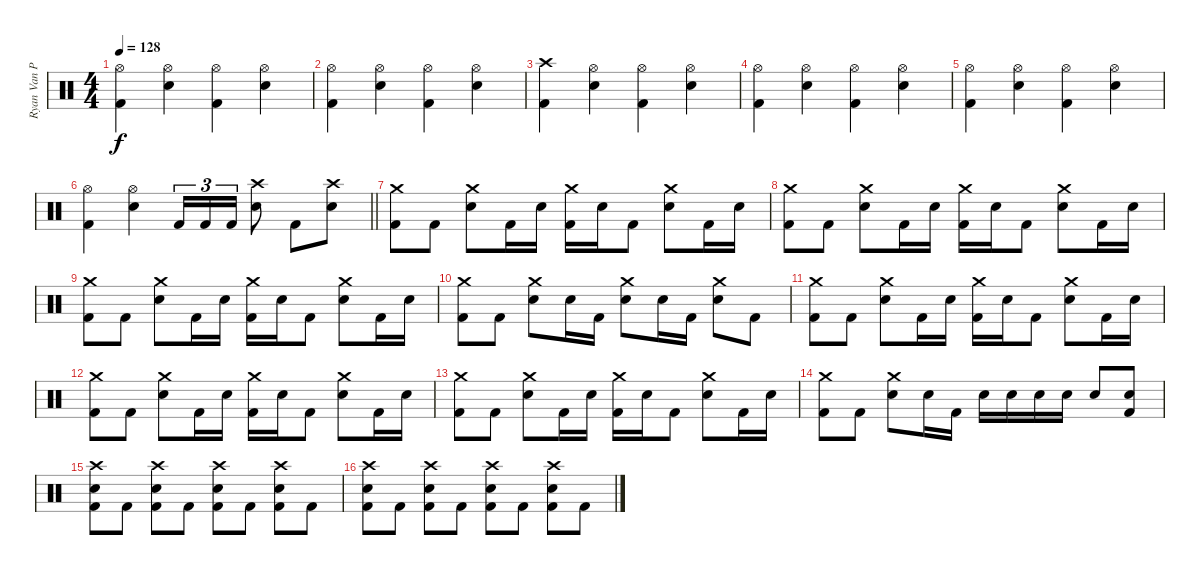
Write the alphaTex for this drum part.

\track ("Ryan Van Poederooyen" "Ryan Van P") {instrument percussion}
\staff {score}
\articulation defaults
\ts (4 4)
\tempo 128
\clef neutral
\ks c
("Hi-Hat (open)" "Kick (hit) 2").4{dy f} ("Hi-Hat (open)" "Electric Snare (hit)").4 ("Hi-Hat (open)" "Kick (hit) 2").4 ("Hi-Hat (open)" "Electric Snare (hit)").4 |
("Hi-Hat (open)" "Kick (hit) 2").4 ("Hi-Hat (open)" "Electric Snare (hit)").4 ("Hi-Hat (open)" "Kick (hit) 2").4 ("Hi-Hat (open)" "Electric Snare (hit)").4 |
("Crash high (hit)" "Kick (hit) 2").4 ("Hi-Hat (open)" "Electric Snare (hit)").4 ("Hi-Hat (open)" "Kick (hit) 2").4 ("Hi-Hat (open)" "Electric Snare (hit)").4 |
("Hi-Hat (open)" "Kick (hit) 2").4 ("Hi-Hat (open)" "Electric Snare (hit)").4 ("Hi-Hat (open)" "Kick (hit) 2").4 ("Hi-Hat (open)" "Electric Snare (hit)").4 |
("Hi-Hat (open)" "Kick (hit) 2").4 ("Hi-Hat (open)" "Electric Snare (hit)").4 ("Hi-Hat (open)" "Kick (hit) 2").4 ("Hi-Hat (open)" "Electric Snare (hit)").4 |
\barLineRight lightlight
("Hi-Hat (open)" "Kick (hit) 2").4 ("Hi-Hat (open)" "Electric Snare (hit)").4 "Kick (hit) 2".16{tu (3 2)} "Kick (hit) 2".16{tu (3 2)} "Kick (hit) 2".16{tu (3 2)} ("Crash high (hit)" "Electric Snare (hit)").8 "Kick (hit) 2".8 ("Crash high (hit)" "Electric Snare (hit)").8 |
("Crash medium (hit)" "Kick (hit) 2").8 "Kick (hit) 2".8 ("Crash medium (hit)" "Electric Snare (hit)").8 "Kick (hit) 2".16 "Electric Snare (hit)".16 ("Crash medium (hit)" "Kick (hit) 2").16 "Electric Snare (hit)".16 "Kick (hit) 2".8 ("Crash medium (hit)" "Electric Snare (hit)").8 "Kick (hit) 2".16 "Electric Snare (hit)".16 |
("Crash medium (hit)" "Kick (hit) 2").8 "Kick (hit) 2".8 ("Crash medium (hit)" "Electric Snare (hit)").8 "Kick (hit) 2".16 "Electric Snare (hit)".16 ("Crash medium (hit)" "Kick (hit) 2").16 "Electric Snare (hit)".16 "Kick (hit) 2".8 ("Crash medium (hit)" "Electric Snare (hit)").8 "Kick (hit) 2".16 "Electric Snare (hit)".16 |
("Crash medium (hit)" "Kick (hit) 2").8 "Kick (hit) 2".8 ("Crash medium (hit)" "Electric Snare (hit)").8 "Kick (hit) 2".16 "Electric Snare (hit)".16 ("Crash medium (hit)" "Kick (hit) 2").16 "Electric Snare (hit)".16 "Kick (hit) 2".8 ("Crash medium (hit)" "Electric Snare (hit)").8 "Kick (hit) 2".16 "Electric Snare (hit)".16 |
("Crash medium (hit)" "Kick (hit) 2").8 "Kick (hit) 2".8 ("Crash medium (hit)" "Electric Snare (hit)").8 "Electric Snare (hit)".16 "Kick (hit) 2".16 ("Crash medium (hit)" "Electric Snare (hit)").8 "Electric Snare (hit)".16 "Kick (hit) 2".16 ("Crash medium (hit)" "Electric Snare (hit)").8 "Kick (hit) 2".8 |
("Crash medium (hit)" "Kick (hit) 2").8 "Kick (hit) 2".8 ("Crash medium (hit)" "Electric Snare (hit)").8 "Kick (hit) 2".16 "Electric Snare (hit)".16 ("Crash medium (hit)" "Kick (hit) 2").16 "Electric Snare (hit)".16 "Kick (hit) 2".8 ("Crash medium (hit)" "Electric Snare (hit)").8 "Kick (hit) 2".16 "Electric Snare (hit)".16 |
("Crash medium (hit)" "Kick (hit) 2").8 "Kick (hit) 2".8 ("Crash medium (hit)" "Electric Snare (hit)").8 "Kick (hit) 2".16 "Electric Snare (hit)".16 ("Crash medium (hit)" "Kick (hit) 2").16 "Electric Snare (hit)".16 "Kick (hit) 2".8 ("Crash medium (hit)" "Electric Snare (hit)").8 "Kick (hit) 2".16 "Electric Snare (hit)".16 |
("Crash medium (hit)" "Kick (hit) 2").8 "Kick (hit) 2".8 ("Crash medium (hit)" "Electric Snare (hit)").8 "Kick (hit) 2".16 "Electric Snare (hit)".16 ("Crash medium (hit)" "Kick (hit) 2").16 "Electric Snare (hit)".16 "Kick (hit) 2".8 ("Crash medium (hit)" "Electric Snare (hit)").8 "Kick (hit) 2".16 "Electric Snare (hit)".16 |
("Crash medium (hit)" "Kick (hit) 2").8 "Kick (hit) 2".8 ("Crash medium (hit)" "Electric Snare (hit)").8 "Electric Snare (hit)".16 "Kick (hit) 2".16 "Electric Snare (hit)".16 "Electric Snare (hit)".16 "Electric Snare (hit)".16 "Electric Snare (hit)".16 "Electric Snare (hit)".8 ("Electric Snare (hit)" "Kick (hit) 2").8 |
("Crash high (hit)" "Electric Snare (hit)" "Kick (hit) 2").8 "Kick (hit) 2".8 ("Crash high (hit)" "Electric Snare (hit)" "Kick (hit) 2").8 "Kick (hit) 2".8 ("Crash high (hit)" "Electric Snare (hit)" "Kick (hit) 2").8 "Kick (hit) 2".8 ("Crash high (hit)" "Electric Snare (hit)" "Kick (hit) 2").8 "Kick (hit) 2".8 |
("Crash high (hit)" "Electric Snare (hit)" "Kick (hit) 2").8 "Kick (hit) 2".8 ("Crash high (hit)" "Electric Snare (hit)" "Kick (hit) 2").8 "Kick (hit) 2".8 ("Crash high (hit)" "Electric Snare (hit)" "Kick (hit) 2").8 "Kick (hit) 2".8 ("Crash high (hit)" "Electric Snare (hit)" "Kick (hit) 2").8 "Kick (hit) 2".8
